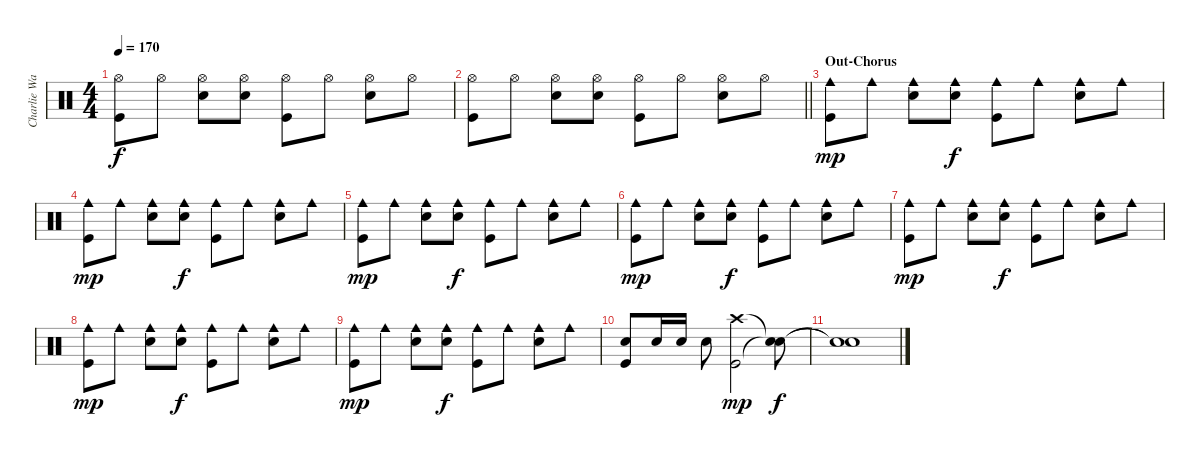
\track ("Charlie Watts" "Charlie Wa") {instrument percussion}
\staff {score}
\articulation defaults
\ts (4 4)
\tempo 170
\clef neutral
\ks c
("Hi-Hat (open)" "Kick (hit)").8{dy f} "Hi-Hat (open)".8 ("Hi-Hat (open)" "Snare (hit) 2").8 ("Hi-Hat (open)" "Snare (hit) 2").8 ("Hi-Hat (open)" "Kick (hit)").8 "Hi-Hat (open)".8 ("Hi-Hat (open)" "Snare (hit) 2").8 "Hi-Hat (open)".8 |
\barLineRight lightlight
("Hi-Hat (open)" "Kick (hit)").8 "Hi-Hat (open)".8 ("Hi-Hat (open)" "Snare (hit) 2").8 ("Hi-Hat (open)" "Snare (hit) 2").8 ("Hi-Hat (open)" "Kick (hit)").8 "Hi-Hat (open)".8 ("Hi-Hat (open)" "Snare (hit) 2").8 "Hi-Hat (open)".8 |
\section ("" "Out-Chorus")
("Cowbell medium (hit)" "Kick (hit)").8{dy mp} "Cowbell medium (hit)".8 ("Cowbell medium (hit)" "Snare (hit) 2").8 ("Cowbell medium (hit)" "Snare (hit) 2").8{dy f} ("Cowbell medium (hit)" "Kick (hit)").8 "Cowbell medium (hit)".8 ("Cowbell medium (hit)" "Snare (hit) 2").8 "Cowbell medium (hit)".8 |
("Cowbell medium (hit)" "Kick (hit)").8{dy mp} "Cowbell medium (hit)".8 ("Cowbell medium (hit)" "Snare (hit) 2").8 ("Cowbell medium (hit)" "Snare (hit) 2").8{dy f} ("Cowbell medium (hit)" "Kick (hit)").8 "Cowbell medium (hit)".8 ("Cowbell medium (hit)" "Snare (hit) 2").8 "Cowbell medium (hit)".8 |
("Cowbell medium (hit)" "Kick (hit)").8{dy mp} "Cowbell medium (hit)".8 ("Cowbell medium (hit)" "Snare (hit) 2").8 ("Cowbell medium (hit)" "Snare (hit) 2").8{dy f} ("Cowbell medium (hit)" "Kick (hit)").8 "Cowbell medium (hit)".8 ("Cowbell medium (hit)" "Snare (hit) 2").8 "Cowbell medium (hit)".8 |
("Cowbell medium (hit)" "Kick (hit)").8{dy mp} "Cowbell medium (hit)".8 ("Cowbell medium (hit)" "Snare (hit) 2").8 ("Cowbell medium (hit)" "Snare (hit) 2").8{dy f} ("Cowbell medium (hit)" "Kick (hit)").8 "Cowbell medium (hit)".8 ("Cowbell medium (hit)" "Snare (hit) 2").8 "Cowbell medium (hit)".8 |
("Cowbell medium (hit)" "Kick (hit)").8{dy mp} "Cowbell medium (hit)".8 ("Cowbell medium (hit)" "Snare (hit) 2").8 ("Cowbell medium (hit)" "Snare (hit) 2").8{dy f} ("Cowbell medium (hit)" "Kick (hit)").8 "Cowbell medium (hit)".8 ("Cowbell medium (hit)" "Snare (hit) 2").8 "Cowbell medium (hit)".8 |
("Cowbell medium (hit)" "Kick (hit)").8{dy mp} "Cowbell medium (hit)".8 ("Cowbell medium (hit)" "Snare (hit) 2").8 ("Cowbell medium (hit)" "Snare (hit) 2").8{dy f} ("Cowbell medium (hit)" "Kick (hit)").8 "Cowbell medium (hit)".8 ("Cowbell medium (hit)" "Snare (hit) 2").8 "Cowbell medium (hit)".8 |
("Cowbell medium (hit)" "Kick (hit)").8{dy mp} "Cowbell medium (hit)".8 ("Cowbell medium (hit)" "Snare (hit) 2").8 ("Cowbell medium (hit)" "Snare (hit) 2").8{dy f} ("Cowbell medium (hit)" "Kick (hit)").8 "Cowbell medium (hit)".8 ("Cowbell medium (hit)" "Snare (hit) 2").8 "Cowbell medium (hit)".8 |
("Snare (hit) 2" "Kick (hit)").8 "Snare (hit) 2".16 "Snare (hit) 2".16 "Snare (hit) 2".8 ("Crash high (hit)" "Kick (hit)").2{dy mp} ("Snare (hit)"{t} "Snare (hit)"{t}).8{dy f} |
("Snare (hit)"{t} "Snare (hit)"{t}).1
